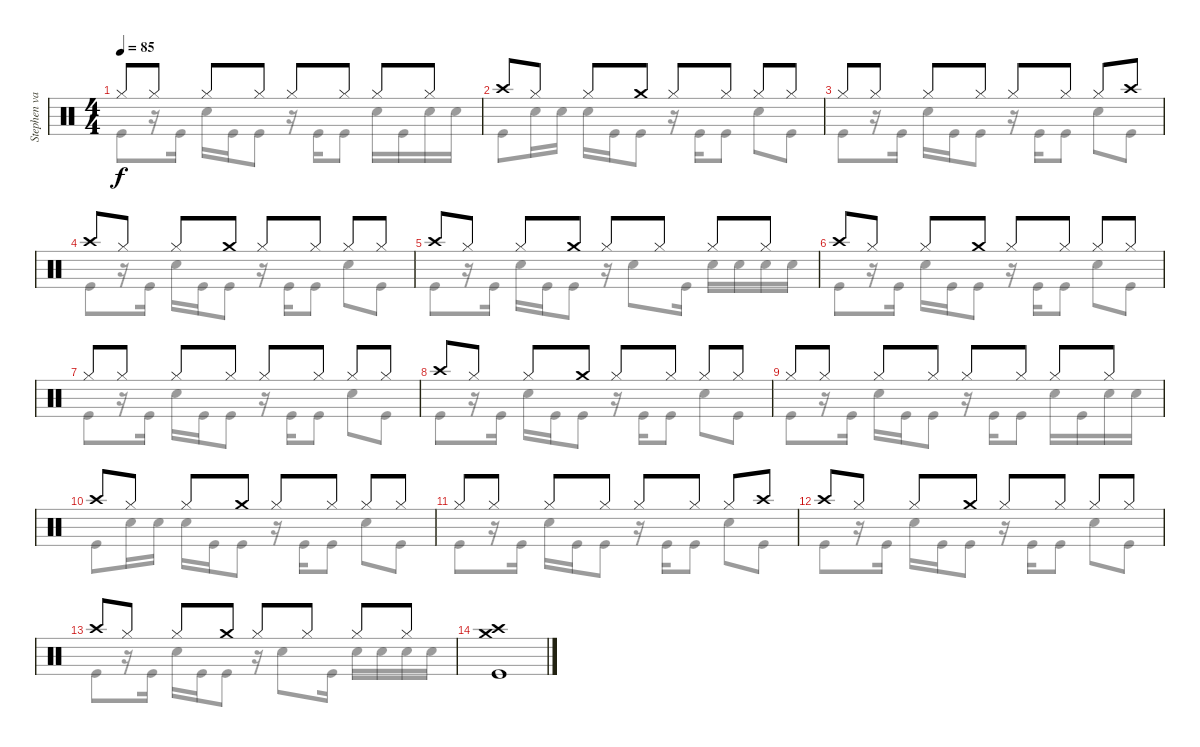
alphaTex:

\track ("Stephen van Haestregt - Drums" "Stephen va") {instrument percussion}
\staff {score}
\articulation defaults
\voice
\ts (4 4)
\tempo 85
\clef neutral
\ks c "Hi-Hat (closed)".8{dy f} "Hi-Hat (closed)".8 "Hi-Hat (closed)".8 "Hi-Hat (closed)".8 "Hi-Hat (closed)".8 "Hi-Hat (closed)".8 "Hi-Hat (closed)".8 "Hi-Hat (closed)".8
|
"Crash high (hit)".8 "Hi-Hat (closed)".8 "Hi-Hat (closed)".8 "Crash medium (hit)".8 "Hi-Hat (closed)".8 "Hi-Hat (closed)".8 "Hi-Hat (closed)".8 "Hi-Hat (closed)".8 |
"Hi-Hat (closed)".8 "Hi-Hat (closed)".8 "Hi-Hat (closed)".8 "Hi-Hat (closed)".8 "Hi-Hat (closed)".8 "Hi-Hat (closed)".8 "Hi-Hat (closed)".8 "Crash high (hit)".8 |
"Crash high (hit)".8 "Hi-Hat (closed)".8 "Hi-Hat (closed)".8 "Crash medium (hit)".8 "Hi-Hat (closed)".8 "Hi-Hat (closed)".8 "Hi-Hat (closed)".8 "Hi-Hat (closed)".8 |
"Crash high (hit)".8 "Hi-Hat (closed)".8 "Hi-Hat (closed)".8 "Crash medium (hit)".8 "Hi-Hat (closed)".8 "Hi-Hat (closed)".8 "Hi-Hat (closed)".8 "Hi-Hat (closed)".8 |
"Crash high (hit)".8 "Hi-Hat (closed)".8 "Hi-Hat (closed)".8 "Crash medium (hit)".8 "Hi-Hat (closed)".8 "Hi-Hat (closed)".8 "Hi-Hat (closed)".8 "Hi-Hat (closed)".8 |
"Hi-Hat (closed)".8 "Hi-Hat (closed)".8 "Hi-Hat (closed)".8 "Hi-Hat (closed)".8 "Hi-Hat (closed)".8 "Hi-Hat (closed)".8 "Hi-Hat (closed)".8 "Hi-Hat (closed)".8 |
"Crash high (hit)".8 "Hi-Hat (closed)".8 "Hi-Hat (closed)".8 "Crash medium (hit)".8 "Hi-Hat (closed)".8 "Hi-Hat (closed)".8 "Hi-Hat (closed)".8 "Hi-Hat (closed)".8 |
"Hi-Hat (closed)".8 "Hi-Hat (closed)".8 "Hi-Hat (closed)".8 "Hi-Hat (closed)".8 "Hi-Hat (closed)".8 "Hi-Hat (closed)".8 "Hi-Hat (closed)".8 "Hi-Hat (closed)".8 |
"Crash high (hit)".8 "Hi-Hat (closed)".8 "Hi-Hat (closed)".8 "Crash medium (hit)".8 "Hi-Hat (closed)".8 "Hi-Hat (closed)".8 "Hi-Hat (closed)".8 "Hi-Hat (closed)".8 |
"Hi-Hat (closed)".8 "Hi-Hat (closed)".8 "Hi-Hat (closed)".8 "Hi-Hat (closed)".8 "Hi-Hat (closed)".8 "Hi-Hat (closed)".8 "Hi-Hat (closed)".8 "Crash high (hit)".8 |
"Crash high (hit)".8 "Hi-Hat (closed)".8 "Hi-Hat (closed)".8 "Crash medium (hit)".8 "Hi-Hat (closed)".8 "Hi-Hat (closed)".8 "Hi-Hat (closed)".8 "Hi-Hat (closed)".8 |
"Crash high (hit)".8 "Hi-Hat (closed)".8 "Hi-Hat (closed)".8 "Crash medium (hit)".8 "Hi-Hat (closed)".8 "Hi-Hat (closed)".8 "Hi-Hat (closed)".8 "Hi-Hat (closed)".8 |
("Crash medium (hit)" "Crash high (hit)" "Kick (hit)").1 |
|
\voice
\clef neutral
\ottava regular
\simile none
\ks c "Kick (hit)".8{dy f}
r.16 "Kick (hit)".16 "Snare (hit) 2".16 "Kick (hit)".16 "Kick (hit)".8 r.16 "Kick (hit)".16 "Kick (hit)".8 "Snare (hit) 2".16 "Kick (hit)".16 "Snare (hit) 2".16 "Snare (hit) 2".16 |
"Kick (hit)".8 "Snare (hit) 2".16 "Snare (hit) 2".16 "Snare (hit) 2".16 "Kick (hit)".16 "Kick (hit)".8 r.16 "Kick (hit)".16 "Kick (hit)".8 "Snare (hit) 2".8 "Kick (hit)".8 |
"Kick (hit)".8 r.16 "Kick (hit)".16 "Snare (hit) 2".16 "Kick (hit)".16 "Kick (hit)".8 r.16 "Kick (hit)".16 "Kick (hit)".8 "Snare (hit) 2".8 "Kick (hit)".8 |
"Kick (hit)".8 r.16 "Kick (hit)".16 "Snare (hit) 2".16 "Kick (hit)".16 "Kick (hit)".8 r.16 "Kick (hit)".16 "Kick (hit)".8 "Snare (hit) 2".8 "Kick (hit)".8 |
"Kick (hit)".8 r.16 "Kick (hit)".16 "Snare (hit) 2".16 "Kick (hit)".16 "Kick (hit)".8 r.16 "Snare (hit) 2".8 "Kick (hit)".16 "Snare (hit) 2".16 "Snare (hit) 2".16 "Snare (hit) 2".16 "Snare (hit) 2".16 |
"Kick (hit)".8 r.16 "Kick (hit)".16 "Snare (hit) 2".16 "Kick (hit)".16 "Kick (hit)".8 r.16 "Kick (hit)".16 "Kick (hit)".8 "Snare (hit) 2".8 "Kick (hit)".8 |
"Kick (hit)".8 r.16 "Kick (hit)".16 "Snare (hit) 2".16 "Kick (hit)".16 "Kick (hit)".8 r.16 "Kick (hit)".16 "Kick (hit)".8 "Snare (hit) 2".8 "Kick (hit)".8 |
"Kick (hit)".8 r.16 "Kick (hit)".16 "Snare (hit) 2".16 "Kick (hit)".16 "Kick (hit)".8 r.16 "Kick (hit)".16 "Kick (hit)".8 "Snare (hit) 2".8 "Kick (hit)".8 |
"Kick (hit)".8 r.16 "Kick (hit)".16 "Snare (hit) 2".16 "Kick (hit)".16 "Kick (hit)".8 r.16 "Kick (hit)".16 "Kick (hit)".8 "Snare (hit) 2".16 "Kick (hit)".16 "Snare (hit) 2".16 "Snare (hit) 2".16 |
"Kick (hit)".8 "Snare (hit) 2".16 "Snare (hit) 2".16 "Snare (hit) 2".16 "Kick (hit)".16 "Kick (hit)".8 r.16 "Kick (hit)".16 "Kick (hit)".8 "Snare (hit) 2".8 "Kick (hit)".8 |
"Kick (hit)".8 r.16 "Kick (hit)".16 "Snare (hit) 2".16 "Kick (hit)".16 "Kick (hit)".8 r.16 "Kick (hit)".16 "Kick (hit)".8 "Snare (hit) 2".8 "Kick (hit)".8 |
"Kick (hit)".8 r.16 "Kick (hit)".16 "Snare (hit) 2".16 "Kick (hit)".16 "Kick (hit)".8 r.16 "Kick (hit)".16 "Kick (hit)".8 "Snare (hit) 2".8 "Kick (hit)".8 |
"Kick (hit)".8 r.16 "Kick (hit)".16 "Snare (hit) 2".16 "Kick (hit)".16 "Kick (hit)".8 r.16 "Snare (hit) 2".8 "Kick (hit)".16 "Snare (hit) 2".16 "Snare (hit) 2".16 "Snare (hit) 2".16 "Snare (hit) 2".16 |
|
|
